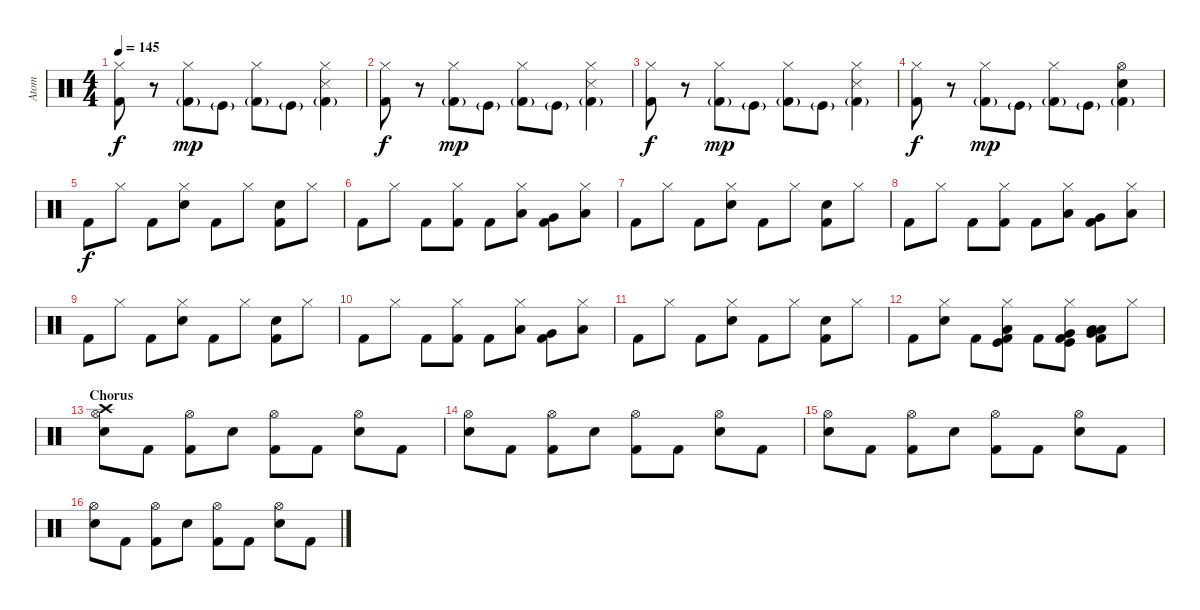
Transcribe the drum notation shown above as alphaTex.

\track ("Atom" "Atom") {instrument percussion}
\staff {score}
\articulation defaults
\ts (4 4)
\tempo 145
\clef neutral
\ks c
("Hi-Hat (closed)" "Kick (hit) 2").8{dy f} r.8 ("Hi-Hat (closed)" "Kick (hit) 2"{g}).8{dy mp} "Kick (hit)"{g}.8 ("Hi-Hat (closed)" "Kick (hit) 2"{g}).8 "Kick (hit)"{g}.8 ("Snare (side stick) 3" "Hi-Hat (closed)" "Kick (hit) 2"{g}).4 |
("Hi-Hat (closed)" "Kick (hit) 2").8{dy f} r.8 ("Hi-Hat (closed)" "Kick (hit) 2"{g}).8{dy mp} "Kick (hit)"{g}.8 ("Hi-Hat (closed)" "Kick (hit) 2"{g}).8 "Kick (hit)"{g}.8 ("Snare (side stick) 3" "Hi-Hat (closed)" "Kick (hit) 2"{g}).4 |
("Hi-Hat (closed)" "Kick (hit) 2").8{dy f} r.8 ("Hi-Hat (closed)" "Kick (hit) 2"{g}).8{dy mp} "Kick (hit)"{g}.8 ("Hi-Hat (closed)" "Kick (hit) 2"{g}).8 "Kick (hit)"{g}.8 ("Snare (side stick) 3" "Hi-Hat (closed)" "Kick (hit) 2"{g}).4 |
("Hi-Hat (closed)" "Kick (hit) 2").8{dy f} r.8 ("Hi-Hat (closed)" "Kick (hit) 2"{g}).8{dy mp} "Kick (hit)"{g}.8 ("Hi-Hat (closed)" "Kick (hit) 2"{g}).8 "Kick (hit)"{g}.8 ("Electric Snare (hit)" "Hi-Hat (open)" "Kick (hit) 2"{g}).4 |
"Kick (hit) 2".8{dy f} "Hi-Hat (closed)".8 "Kick (hit) 2".8 ("Hi-Hat (closed)" "Electric Snare (hit)").8 "Kick (hit) 2".8 "Hi-Hat (closed)".8 ("Electric Snare (hit)" "Kick (hit) 2").8 "Hi-Hat (closed)".8 |
"Kick (hit) 2".8 "Hi-Hat (closed)".8 "Kick (hit) 2".8 ("Hi-Hat (closed)" "Kick (hit) 2").8 "Kick (hit) 2".8 ("Hi-Hat (closed)" "Low Tom (hit)").8 ("Very Low Tom (hit)" "Kick (hit) 2").8 ("Hi-Hat (closed)" "Low Floor Tom (hit)").8 |
"Kick (hit) 2".8 "Hi-Hat (closed)".8 "Kick (hit) 2".8 ("Hi-Hat (closed)" "Electric Snare (hit)").8 "Kick (hit) 2".8 "Hi-Hat (closed)".8 ("Electric Snare (hit)" "Kick (hit) 2").8 "Hi-Hat (closed)".8 |
"Kick (hit) 2".8 "Hi-Hat (closed)".8 "Kick (hit) 2".8 ("Hi-Hat (closed)" "Kick (hit) 2").8 "Kick (hit) 2".8 ("Hi-Hat (closed)" "Low Tom (hit)").8 ("Very Low Tom (hit)" "Kick (hit) 2").8 ("Hi-Hat (closed)" "Low Floor Tom (hit)").8 |
"Kick (hit) 2".8 "Hi-Hat (closed)".8 "Kick (hit) 2".8 ("Hi-Hat (closed)" "Electric Snare (hit)").8 "Kick (hit) 2".8 "Hi-Hat (closed)".8 ("Electric Snare (hit)" "Kick (hit) 2").8 "Hi-Hat (closed)".8 |
"Kick (hit) 2".8 "Hi-Hat (closed)".8 "Kick (hit) 2".8 ("Hi-Hat (closed)" "Kick (hit) 2").8 "Kick (hit) 2".8 ("Hi-Hat (closed)" "Low Tom (hit)").8 ("Very Low Tom (hit)" "Kick (hit) 2").8 ("Hi-Hat (closed)" "Low Floor Tom (hit)").8 |
"Kick (hit) 2".8 "Hi-Hat (closed)".8 "Kick (hit) 2".8 ("Hi-Hat (closed)" "Electric Snare (hit)").8 "Kick (hit) 2".8 "Hi-Hat (closed)".8 ("Electric Snare (hit)" "Kick (hit) 2").8 "Hi-Hat (closed)".8 |
"Kick (hit) 2".8 ("Hi-Hat (closed)" "Electric Snare (hit)").8 "Kick (hit) 2".8 ("Kick (hit)" "Low Tom (hit)" "Hi-Hat (closed)" "Kick (hit) 2").8 "Kick (hit) 2".8 ("Kick (hit)" "Very Low Tom (hit)" "Hi-Hat (closed)" "Kick (hit) 2").8 ("Low Tom (hit)" "Low Floor Tom (hit)" "Very Low Tom (hit)" "Kick (hit) 2").8 "Hi-Hat (closed)".8 |
\section ("" "Chorus")
("Electric Snare (hit)" "Hi-Hat (open)" "Crash high (hit)").8{volume 16} "Kick (hit) 2".8 ("Kick (hit) 2" "Hi-Hat (open)").8 "Electric Snare (hit)".8 ("Kick (hit) 2" "Hi-Hat (open)").8 "Kick (hit) 2".8 ("Electric Snare (hit)" "Hi-Hat (open)").8 "Kick (hit) 2".8 |
("Electric Snare (hit)" "Hi-Hat (open)").8{volume 16} "Kick (hit) 2".8 ("Kick (hit) 2" "Hi-Hat (open)").8 "Electric Snare (hit)".8 ("Kick (hit) 2" "Hi-Hat (open)").8 "Kick (hit) 2".8 ("Electric Snare (hit)" "Hi-Hat (open)").8 "Kick (hit) 2".8 |
("Electric Snare (hit)" "Hi-Hat (open)").8{volume 16} "Kick (hit) 2".8 ("Kick (hit) 2" "Hi-Hat (open)").8 "Electric Snare (hit)".8 ("Kick (hit) 2" "Hi-Hat (open)").8 "Kick (hit) 2".8 ("Electric Snare (hit)" "Hi-Hat (open)").8 "Kick (hit) 2".8 |
("Electric Snare (hit)" "Hi-Hat (open)").8{volume 16} "Kick (hit) 2".8 ("Kick (hit) 2" "Hi-Hat (open)").8 "Electric Snare (hit)".8 ("Kick (hit) 2" "Hi-Hat (open)").8 "Kick (hit) 2".8 ("Electric Snare (hit)" "Hi-Hat (open)").8 "Kick (hit) 2".8
